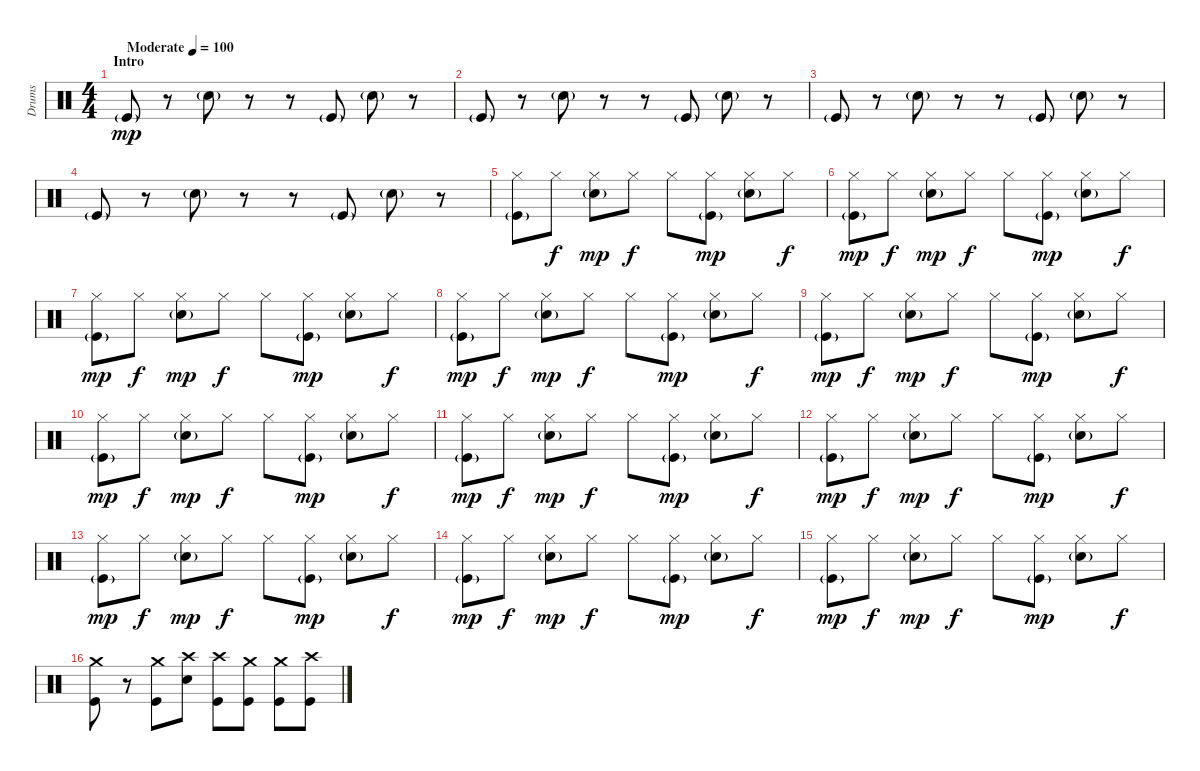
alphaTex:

\track ("Drums" "Drums") {instrument percussion}
\staff {score}
\articulation defaults
\ts (4 4)
\section ("" "Intro")
\tempo (100 "Moderate")
\clef neutral
\ks c "Kick (hit)"{g}.8{dy mp}
r.8 "Electric Snare (hit)"{g}.8 r.8 r.8 "Kick (hit)"{g}.8 "Electric Snare (hit)"{g}.8 r.8 |
"Kick (hit)"{g}.8 r.8 "Electric Snare (hit)"{g}.8 r.8 r.8 "Kick (hit)"{g}.8 "Electric Snare (hit)"{g}.8 r.8 |
"Kick (hit)"{g}.8 r.8 "Electric Snare (hit)"{g}.8 r.8 r.8 "Kick (hit)"{g}.8 "Electric Snare (hit)"{g}.8 r.8 |
"Kick (hit)"{g}.8 r.8 "Electric Snare (hit)"{g}.8 r.8 r.8 "Kick (hit)"{g}.8 "Electric Snare (hit)"{g}.8 r.8 |
("Hi-Hat (closed)" "Kick (hit)"{g}).8 "Hi-Hat (closed)".8{dy f} ("Hi-Hat (closed)" "Electric Snare (hit)"{g}).8{dy mp} "Hi-Hat (closed)".8{dy f} "Hi-Hat (closed)".8 ("Hi-Hat (closed)" "Kick (hit)"{g}).8{dy mp} ("Hi-Hat (closed)" "Electric Snare (hit)"{g}).8 "Hi-Hat (closed)".8{dy f} |
("Hi-Hat (closed)" "Kick (hit)"{g}).8{dy mp} "Hi-Hat (closed)".8{dy f} ("Hi-Hat (closed)" "Electric Snare (hit)"{g}).8{dy mp} "Hi-Hat (closed)".8{dy f} "Hi-Hat (closed)".8 ("Hi-Hat (closed)" "Kick (hit)"{g}).8{dy mp} ("Hi-Hat (closed)" "Electric Snare (hit)"{g}).8 "Hi-Hat (closed)".8{dy f} |
("Hi-Hat (closed)" "Kick (hit)"{g}).8{dy mp} "Hi-Hat (closed)".8{dy f} ("Hi-Hat (closed)" "Electric Snare (hit)"{g}).8{dy mp} "Hi-Hat (closed)".8{dy f} "Hi-Hat (closed)".8 ("Hi-Hat (closed)" "Kick (hit)"{g}).8{dy mp} ("Hi-Hat (closed)" "Electric Snare (hit)"{g}).8 "Hi-Hat (closed)".8{dy f} |
("Hi-Hat (closed)" "Kick (hit)"{g}).8{dy mp} "Hi-Hat (closed)".8{dy f} ("Hi-Hat (closed)" "Electric Snare (hit)"{g}).8{dy mp} "Hi-Hat (closed)".8{dy f} "Hi-Hat (closed)".8 ("Hi-Hat (closed)" "Kick (hit)"{g}).8{dy mp} ("Hi-Hat (closed)" "Electric Snare (hit)"{g}).8 "Hi-Hat (closed)".8{dy f} |
("Hi-Hat (closed)" "Kick (hit)"{g}).8{dy mp} "Hi-Hat (closed)".8{dy f} ("Hi-Hat (closed)" "Electric Snare (hit)"{g}).8{dy mp} "Hi-Hat (closed)".8{dy f} "Hi-Hat (closed)".8 ("Hi-Hat (closed)" "Kick (hit)"{g}).8{dy mp} ("Hi-Hat (closed)" "Electric Snare (hit)"{g}).8 "Hi-Hat (closed)".8{dy f} |
("Hi-Hat (closed)" "Kick (hit)"{g}).8{dy mp} "Hi-Hat (closed)".8{dy f} ("Hi-Hat (closed)" "Electric Snare (hit)"{g}).8{dy mp} "Hi-Hat (closed)".8{dy f} "Hi-Hat (closed)".8 ("Hi-Hat (closed)" "Kick (hit)"{g}).8{dy mp} ("Hi-Hat (closed)" "Electric Snare (hit)"{g}).8 "Hi-Hat (closed)".8{dy f} |
("Hi-Hat (closed)" "Kick (hit)"{g}).8{dy mp} "Hi-Hat (closed)".8{dy f} ("Hi-Hat (closed)" "Electric Snare (hit)"{g}).8{dy mp} "Hi-Hat (closed)".8{dy f} "Hi-Hat (closed)".8 ("Hi-Hat (closed)" "Kick (hit)"{g}).8{dy mp} ("Hi-Hat (closed)" "Electric Snare (hit)"{g}).8 "Hi-Hat (closed)".8{dy f} |
("Hi-Hat (closed)" "Kick (hit)"{g}).8{dy mp} "Hi-Hat (closed)".8{dy f} ("Hi-Hat (closed)" "Electric Snare (hit)"{g}).8{dy mp} "Hi-Hat (closed)".8{dy f} "Hi-Hat (closed)".8 ("Hi-Hat (closed)" "Kick (hit)"{g}).8{dy mp} ("Hi-Hat (closed)" "Electric Snare (hit)"{g}).8 "Hi-Hat (closed)".8{dy f} |
("Hi-Hat (closed)" "Kick (hit)"{g}).8{dy mp} "Hi-Hat (closed)".8{dy f} ("Hi-Hat (closed)" "Electric Snare (hit)"{g}).8{dy mp} "Hi-Hat (closed)".8{dy f} "Hi-Hat (closed)".8 ("Hi-Hat (closed)" "Kick (hit)"{g}).8{dy mp} ("Hi-Hat (closed)" "Electric Snare (hit)"{g}).8 "Hi-Hat (closed)".8{dy f} |
("Hi-Hat (closed)" "Kick (hit)"{g}).8{dy mp} "Hi-Hat (closed)".8{dy f} ("Hi-Hat (closed)" "Electric Snare (hit)"{g}).8{dy mp} "Hi-Hat (closed)".8{dy f} "Hi-Hat (closed)".8 ("Hi-Hat (closed)" "Kick (hit)"{g}).8{dy mp} ("Hi-Hat (closed)" "Electric Snare (hit)"{g}).8 "Hi-Hat (closed)".8{dy f} |
("Hi-Hat (closed)" "Kick (hit)"{g}).8{dy mp} "Hi-Hat (closed)".8{dy f} ("Hi-Hat (closed)" "Electric Snare (hit)"{g}).8{dy mp} "Hi-Hat (closed)".8{dy f} "Hi-Hat (closed)".8 ("Hi-Hat (closed)" "Kick (hit)"{g}).8{dy mp} ("Hi-Hat (closed)" "Electric Snare (hit)"{g}).8 "Hi-Hat (closed)".8{dy f} |
("Crash medium (hit)" "Kick (hit)").8 r.8 ("Crash medium (hit)" "Kick (hit)").8 ("Crash high (hit)" "Electric Snare (hit)").8 ("Crash high (hit)" "Kick (hit)").8 ("Crash medium (hit)" "Kick (hit)").8 ("Crash medium (hit)" "Kick (hit)").8 ("Crash high (hit)" "Kick (hit)").8
